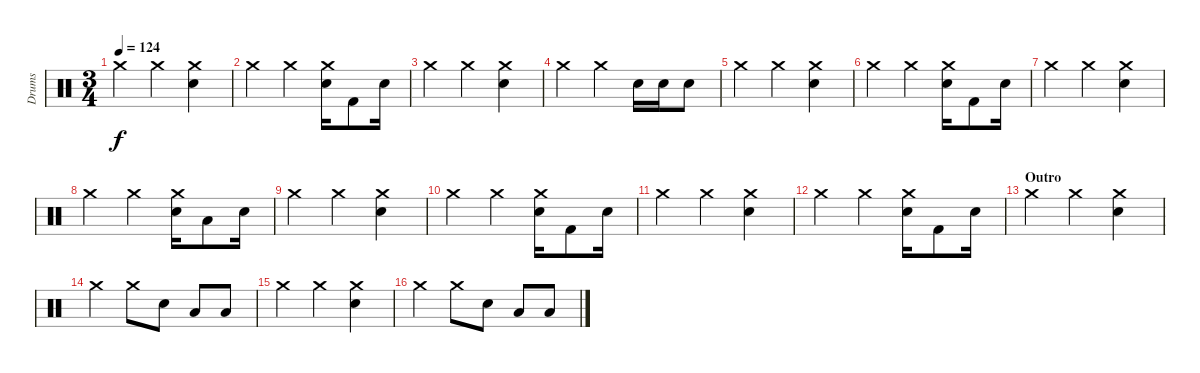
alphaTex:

\track ("Drums" "Drums") {instrument percussion}
\staff {score}
\articulation defaults
\ts (3 4)
\tempo 124
\clef neutral
\ks c "Crash medium (hit)".4{dy f} "Crash medium (hit)".4
("Electric Snare (hit)" "Crash medium (hit)").4 |
"Crash medium (hit)".4 "Crash medium (hit)".4 ("Electric Snare (hit)" "Crash medium (hit)").16 "Kick (hit) 2".8 "Electric Snare (hit)".16 |
"Crash medium (hit)".4 "Crash medium (hit)".4 ("Electric Snare (hit)" "Crash medium (hit)").4 |
"Crash medium (hit)".4 "Crash medium (hit)".4 "Electric Snare (hit)".16 "Electric Snare (hit)".16 "Electric Snare (hit)".8 |
"Crash medium (hit)".4 "Crash medium (hit)".4 ("Electric Snare (hit)" "Crash medium (hit)").4 |
"Crash medium (hit)".4 "Crash medium (hit)".4 ("Electric Snare (hit)" "Crash medium (hit)").16 "Kick (hit) 2".8 "Electric Snare (hit)".16 |
"Crash medium (hit)".4 "Crash medium (hit)".4 ("Electric Snare (hit)" "Crash medium (hit)").4 |
"Crash medium (hit)".4 "Crash medium (hit)".4 ("Electric Snare (hit)" "Crash medium (hit)").16 "Low Floor Tom (hit)".8 "Electric Snare (hit)".16 |
"Crash medium (hit)".4 "Crash medium (hit)".4 ("Electric Snare (hit)" "Crash medium (hit)").4 |
"Crash medium (hit)".4 "Crash medium (hit)".4 ("Electric Snare (hit)" "Crash medium (hit)").16 "Kick (hit) 2".8 "Electric Snare (hit)".16 |
"Crash medium (hit)".4 "Crash medium (hit)".4 ("Electric Snare (hit)" "Crash medium (hit)").4 |
"Crash medium (hit)".4 "Crash medium (hit)".4 ("Electric Snare (hit)" "Crash medium (hit)").16 "Kick (hit) 2".8 "Electric Snare (hit)".16 |
\section ("" "Outro")
"Crash medium (hit)".4 "Crash medium (hit)".4 ("Electric Snare (hit)" "Crash medium (hit)").4 |
"Crash medium (hit)".4 "Crash medium (hit)".8 "Electric Snare (hit)".8 "Low Tom (hit)".8 "Low Tom (hit)".8 |
"Crash medium (hit)".4 "Crash medium (hit)".4 ("Electric Snare (hit)" "Crash medium (hit)").4 |
"Crash medium (hit)".4 "Crash medium (hit)".8 "Electric Snare (hit)".8 "Low Tom (hit)".8 "Low Tom (hit)".8
